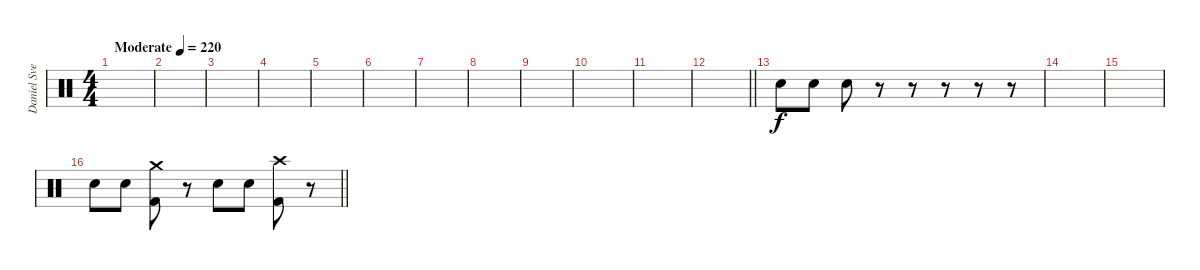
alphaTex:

\track ("Daniel Svensson" "Daniel Sve") {instrument percussion}
\staff {score}
\articulation defaults
\ts (4 4)
\tempo (220 "Moderate")
\clef neutral
\ks c
|
|
|
|
|
|
|
|
|
|
|
\barLineRight lightlight
|
"Electric Snare (hit)".8 "Electric Snare (hit)".8 "Electric Snare (hit)".8 r.8 r.8 r.8 r.8 r.8 |
|
|
\barLineRight lightlight "Electric Snare (hit)".8 "Electric Snare (hit)".8
("Crash medium (hit)" "Kick (hit) 2").8 r.8 "Electric Snare (hit)".8 "Electric Snare (hit)".8 ("Crash high (hit)" "Kick (hit) 2").8 r.8
